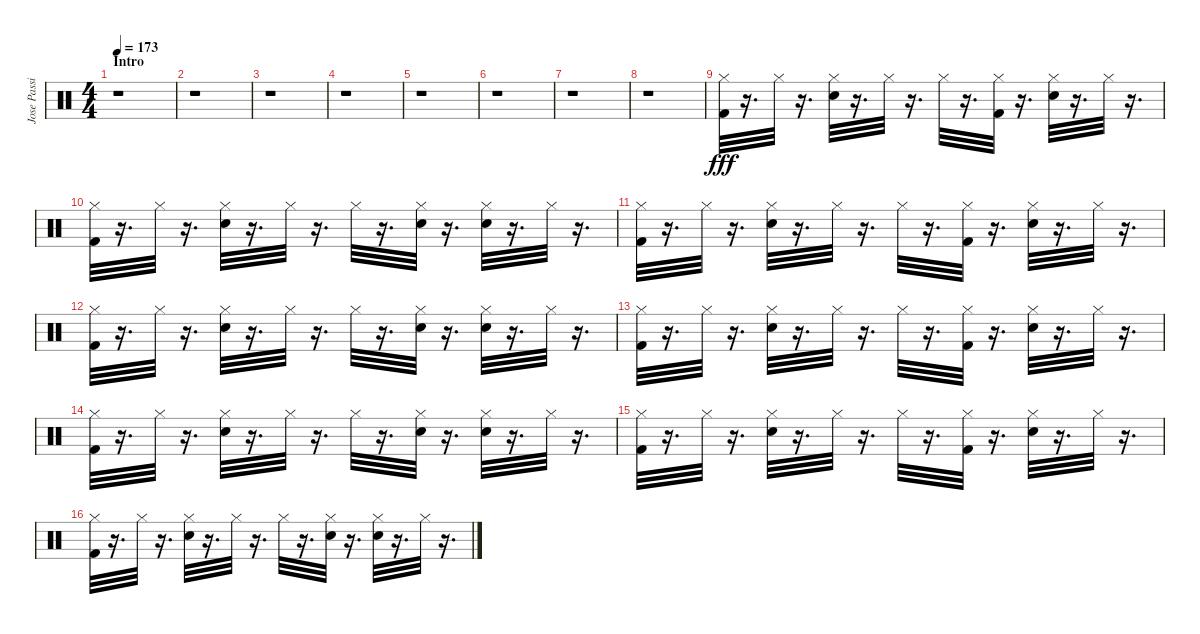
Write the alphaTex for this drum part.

\track ("Jose Passilas-Drums" "Jose Passi") {instrument percussion}
\staff {score}
\articulation defaults
\ts (4 4)
\section ("" "Intro")
\tempo 173
\clef neutral
\ks c
r.1{dy fff} |
r.1 |
r.1 |
r.1 |
r.1 |
r.1 |
r.1 |
r.1 |
("Kick (hit) 2" "Hi-Hat (closed)").32 r.16{d} "Hi-Hat (closed)".32 r.16{d} ("Electric Snare (hit)" "Hi-Hat (closed)").32 r.16{d} "Hi-Hat (closed)".32 r.16{d} "Hi-Hat (closed)".32 r.16{d} ("Kick (hit) 2" "Hi-Hat (closed)").32 r.16{d} ("Electric Snare (hit)" "Hi-Hat (closed)").32 r.16{d} "Hi-Hat (closed)".32 r.16{d} |
("Kick (hit) 2" "Hi-Hat (closed)").32 r.16{d} "Hi-Hat (closed)".32 r.16{d} ("Electric Snare (hit)" "Hi-Hat (closed)").32 r.16{d} "Hi-Hat (closed)".32 r.16{d} "Hi-Hat (closed)".32 r.16{d} ("Electric Snare (hit)" "Hi-Hat (closed)").32 r.16{d} ("Electric Snare (hit)" "Hi-Hat (closed)").32 r.16{d} "Hi-Hat (closed)".32 r.16{d} |
("Kick (hit) 2" "Hi-Hat (closed)").32 r.16{d} "Hi-Hat (closed)".32 r.16{d} ("Hi-Hat (closed)" "Electric Snare (hit)").32 r.16{d} "Hi-Hat (closed)".32 r.16{d} "Hi-Hat (closed)".32 r.16{d} ("Hi-Hat (closed)" "Kick (hit) 2").32 r.16{d} ("Hi-Hat (closed)" "Electric Snare (hit)").32 r.16{d} "Hi-Hat (closed)".32 r.16{d} |
("Hi-Hat (closed)" "Kick (hit) 2").32 r.16{d} "Hi-Hat (closed)".32 r.16{d} ("Hi-Hat (closed)" "Electric Snare (hit)").32 r.16{d} "Hi-Hat (closed)".32 r.16{d} "Hi-Hat (closed)".32 r.16{d} ("Hi-Hat (closed)" "Electric Snare (hit)").32 r.16{d} ("Hi-Hat (closed)" "Electric Snare (hit)").32 r.16{d} "Hi-Hat (closed)".32 r.16{d} |
("Hi-Hat (closed)" "Kick (hit) 2").32 r.16{d} "Hi-Hat (closed)".32 r.16{d} ("Hi-Hat (closed)" "Electric Snare (hit)").32 r.16{d} "Hi-Hat (closed)".32 r.16{d} "Hi-Hat (closed)".32 r.16{d} ("Hi-Hat (closed)" "Kick (hit) 2").32 r.16{d} ("Hi-Hat (closed)" "Electric Snare (hit)").32 r.16{d} "Hi-Hat (closed)".32 r.16{d} |
("Hi-Hat (closed)" "Kick (hit) 2").32 r.16{d} "Hi-Hat (closed)".32 r.16{d} ("Hi-Hat (closed)" "Electric Snare (hit)").32 r.16{d} "Hi-Hat (closed)".32 r.16{d} "Hi-Hat (closed)".32 r.16{d} ("Hi-Hat (closed)" "Electric Snare (hit)").32 r.16{d} ("Hi-Hat (closed)" "Electric Snare (hit)").32 r.16{d} "Hi-Hat (closed)".32 r.16{d} |
("Hi-Hat (closed)" "Kick (hit) 2").32 r.16{d} "Hi-Hat (closed)".32 r.16{d} ("Electric Snare (hit)" "Hi-Hat (closed)").32 r.16{d} "Hi-Hat (closed)".32 r.16{d} "Hi-Hat (closed)".32 r.16{d} ("Kick (hit) 2" "Hi-Hat (closed)").32 r.16{d} ("Electric Snare (hit)" "Hi-Hat (closed)").32 r.16{d} "Hi-Hat (closed)".32 r.16{d} |
("Kick (hit) 2" "Hi-Hat (closed)").32 r.16{d} "Hi-Hat (closed)".32 r.16{d} ("Electric Snare (hit)" "Hi-Hat (closed)").32 r.16{d} "Hi-Hat (closed)".32 r.16{d} "Hi-Hat (closed)".32 r.16{d} ("Electric Snare (hit)" "Hi-Hat (closed)").32 r.16{d} ("Electric Snare (hit)" "Hi-Hat (closed)").32 r.16{d} "Hi-Hat (closed)".32 r.16{d}
